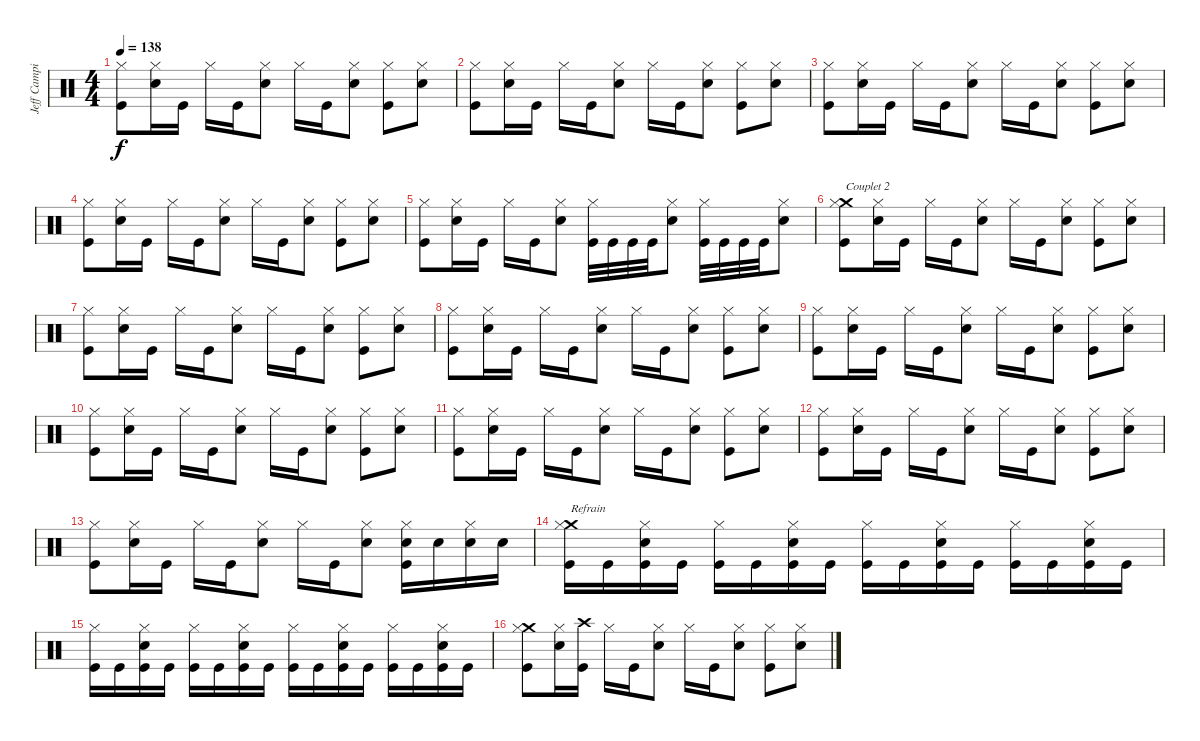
\track ("Jeff Campitelli" "Jeff Campi") {instrument percussion}
\staff {score}
\articulation defaults
\ts (4 4)
\tempo 138
\clef neutral
\ks c
("Hi-Hat (closed)" "Kick (hit)").8{dy f} ("Electric Snare (hit)" "Hi-Hat (closed)").16 "Kick (hit)".16 "Hi-Hat (closed)".16 "Kick (hit)".16 ("Electric Snare (hit)" "Hi-Hat (closed)").8 "Hi-Hat (closed)".16 "Kick (hit)".16 ("Electric Snare (hit)" "Hi-Hat (closed)").8 ("Hi-Hat (closed)" "Kick (hit)").8 ("Electric Snare (hit)" "Hi-Hat (closed)").8 |
("Hi-Hat (closed)" "Kick (hit)").8 ("Electric Snare (hit)" "Hi-Hat (closed)").16 "Kick (hit)".16 "Hi-Hat (closed)".16 "Kick (hit)".16 ("Electric Snare (hit)" "Hi-Hat (closed)").8 "Hi-Hat (closed)".16 "Kick (hit)".16 ("Electric Snare (hit)" "Hi-Hat (closed)").8 ("Hi-Hat (closed)" "Kick (hit)").8 ("Electric Snare (hit)" "Hi-Hat (closed)").8 |
("Hi-Hat (closed)" "Kick (hit)").8 ("Electric Snare (hit)" "Hi-Hat (closed)").16 "Kick (hit)".16 "Hi-Hat (closed)".16 "Kick (hit)".16 ("Electric Snare (hit)" "Hi-Hat (closed)").8 "Hi-Hat (closed)".16 "Kick (hit)".16 ("Electric Snare (hit)" "Hi-Hat (closed)").8 ("Hi-Hat (closed)" "Kick (hit)").8 ("Electric Snare (hit)" "Hi-Hat (closed)").8 |
("Hi-Hat (closed)" "Kick (hit)").8 ("Electric Snare (hit)" "Hi-Hat (closed)").16 "Kick (hit)".16 "Hi-Hat (closed)".16 "Kick (hit)".16 ("Electric Snare (hit)" "Hi-Hat (closed)").8 "Hi-Hat (closed)".16 "Kick (hit)".16 ("Electric Snare (hit)" "Hi-Hat (closed)").8 ("Hi-Hat (closed)" "Kick (hit)").8 ("Electric Snare (hit)" "Hi-Hat (closed)").8 |
("Hi-Hat (closed)" "Kick (hit)").8 ("Electric Snare (hit)" "Hi-Hat (closed)").16 "Kick (hit)".16 "Hi-Hat (closed)".16 "Kick (hit)".16 ("Electric Snare (hit)" "Hi-Hat (closed)").8 ("Hi-Hat (closed)" "Kick (hit)").32 "Kick (hit)".32 "Kick (hit)".32 "Kick (hit)".32 ("Electric Snare (hit)" "Hi-Hat (closed)").8 ("Hi-Hat (closed)" "Kick (hit)").32 "Kick (hit)".32 "Kick (hit)".32 "Kick (hit)".32 ("Electric Snare (hit)" "Hi-Hat (closed)").8 |
("Crash medium (hit)" "Hi-Hat (closed)" "Kick (hit)").8{txt "Couplet 2"} ("Electric Snare (hit)" "Hi-Hat (closed)").16 "Kick (hit)".16 "Hi-Hat (closed)".16 "Kick (hit)".16 ("Electric Snare (hit)" "Hi-Hat (closed)").8 "Hi-Hat (closed)".16 "Kick (hit)".16 ("Electric Snare (hit)" "Hi-Hat (closed)").8 ("Hi-Hat (closed)" "Kick (hit)").8 ("Electric Snare (hit)" "Hi-Hat (closed)").8 |
("Hi-Hat (closed)" "Kick (hit)").8 ("Electric Snare (hit)" "Hi-Hat (closed)").16 "Kick (hit)".16 "Hi-Hat (closed)".16 "Kick (hit)".16 ("Electric Snare (hit)" "Hi-Hat (closed)").8 "Hi-Hat (closed)".16 "Kick (hit)".16 ("Electric Snare (hit)" "Hi-Hat (closed)").8 ("Hi-Hat (closed)" "Kick (hit)").8 ("Electric Snare (hit)" "Hi-Hat (closed)").8 |
("Hi-Hat (closed)" "Kick (hit)").8 ("Electric Snare (hit)" "Hi-Hat (closed)").16 "Kick (hit)".16 "Hi-Hat (closed)".16 "Kick (hit)".16 ("Electric Snare (hit)" "Hi-Hat (closed)").8 "Hi-Hat (closed)".16 "Kick (hit)".16 ("Electric Snare (hit)" "Hi-Hat (closed)").8 ("Hi-Hat (closed)" "Kick (hit)").8 ("Electric Snare (hit)" "Hi-Hat (closed)").8 |
("Hi-Hat (closed)" "Kick (hit)").8 ("Electric Snare (hit)" "Hi-Hat (closed)").16 "Kick (hit)".16 "Hi-Hat (closed)".16 "Kick (hit)".16 ("Electric Snare (hit)" "Hi-Hat (closed)").8 "Hi-Hat (closed)".16 "Kick (hit)".16 ("Electric Snare (hit)" "Hi-Hat (closed)").8 ("Hi-Hat (closed)" "Kick (hit)").8 ("Electric Snare (hit)" "Hi-Hat (closed)").8 |
("Hi-Hat (closed)" "Kick (hit)").8 ("Electric Snare (hit)" "Hi-Hat (closed)").16 "Kick (hit)".16 "Hi-Hat (closed)".16 "Kick (hit)".16 ("Electric Snare (hit)" "Hi-Hat (closed)").8 "Hi-Hat (closed)".16 "Kick (hit)".16 ("Electric Snare (hit)" "Hi-Hat (closed)").8 ("Hi-Hat (closed)" "Kick (hit)").8 ("Electric Snare (hit)" "Hi-Hat (closed)").8 |
("Hi-Hat (closed)" "Kick (hit)").8 ("Electric Snare (hit)" "Hi-Hat (closed)").16 "Kick (hit)".16 "Hi-Hat (closed)".16 "Kick (hit)".16 ("Electric Snare (hit)" "Hi-Hat (closed)").8 "Hi-Hat (closed)".16 "Kick (hit)".16 ("Electric Snare (hit)" "Hi-Hat (closed)").8 ("Hi-Hat (closed)" "Kick (hit)").8 ("Electric Snare (hit)" "Hi-Hat (closed)").8 |
("Hi-Hat (closed)" "Kick (hit)").8 ("Electric Snare (hit)" "Hi-Hat (closed)").16 "Kick (hit)".16 "Hi-Hat (closed)".16 "Kick (hit)".16 ("Electric Snare (hit)" "Hi-Hat (closed)").8 "Hi-Hat (closed)".16 "Kick (hit)".16 ("Electric Snare (hit)" "Hi-Hat (closed)").8 ("Hi-Hat (closed)" "Kick (hit)").8 ("Electric Snare (hit)" "Hi-Hat (closed)").8 |
("Hi-Hat (closed)" "Kick (hit)").8 ("Electric Snare (hit)" "Hi-Hat (closed)").16 "Kick (hit)".16 "Hi-Hat (closed)".16 "Kick (hit)".16 ("Electric Snare (hit)" "Hi-Hat (closed)").8 "Hi-Hat (closed)".16 "Kick (hit)".16 ("Electric Snare (hit)" "Hi-Hat (closed)").8 ("Electric Snare (hit)" "Hi-Hat (closed)" "Kick (hit)").16 "Electric Snare (hit)".16 ("Electric Snare (hit)" "Hi-Hat (closed)").16 "Electric Snare (hit)".16 |
("Crash medium (hit)" "Hi-Hat (closed)" "Kick (hit)").16{txt "Refrain"} "Kick (hit)".16 ("Electric Snare (hit)" "Hi-Hat (closed)" "Kick (hit)").16 "Kick (hit)".16 ("Hi-Hat (closed)" "Kick (hit)").16 "Kick (hit)".16 ("Electric Snare (hit)" "Hi-Hat (closed)" "Kick (hit)").16 "Kick (hit)".16 ("Hi-Hat (closed)" "Kick (hit)").16 "Kick (hit)".16 ("Electric Snare (hit)" "Hi-Hat (closed)" "Kick (hit)").16 "Kick (hit)".16 ("Hi-Hat (closed)" "Kick (hit)").16 "Kick (hit)".16 ("Electric Snare (hit)" "Hi-Hat (closed)" "Kick (hit)").16 "Kick (hit)".16 |
("Hi-Hat (closed)" "Kick (hit)").16 "Kick (hit)".16 ("Electric Snare (hit)" "Hi-Hat (closed)" "Kick (hit)").16 "Kick (hit)".16 ("Hi-Hat (closed)" "Kick (hit)").16 "Kick (hit)".16 ("Electric Snare (hit)" "Hi-Hat (closed)" "Kick (hit)").16 "Kick (hit)".16 ("Hi-Hat (closed)" "Kick (hit)").16 "Kick (hit)".16 ("Electric Snare (hit)" "Hi-Hat (closed)" "Kick (hit)").16 "Kick (hit)".16 ("Hi-Hat (closed)" "Kick (hit)").16 "Kick (hit)".16 ("Electric Snare (hit)" "Hi-Hat (closed)" "Kick (hit)").16 "Kick (hit)".16 |
("Crash medium (hit)" "Hi-Hat (closed)" "Kick (hit)").8 ("Electric Snare (hit)" "Hi-Hat (closed)").16 ("Crash high (hit)" "Kick (hit)").16 "Hi-Hat (closed)".16 "Kick (hit)".16 ("Electric Snare (hit)" "Hi-Hat (closed)").8 "Hi-Hat (closed)".16 "Kick (hit)".16 ("Electric Snare (hit)" "Hi-Hat (closed)").8 ("Hi-Hat (closed)" "Kick (hit)").8 ("Electric Snare (hit)" "Hi-Hat (closed)").8
